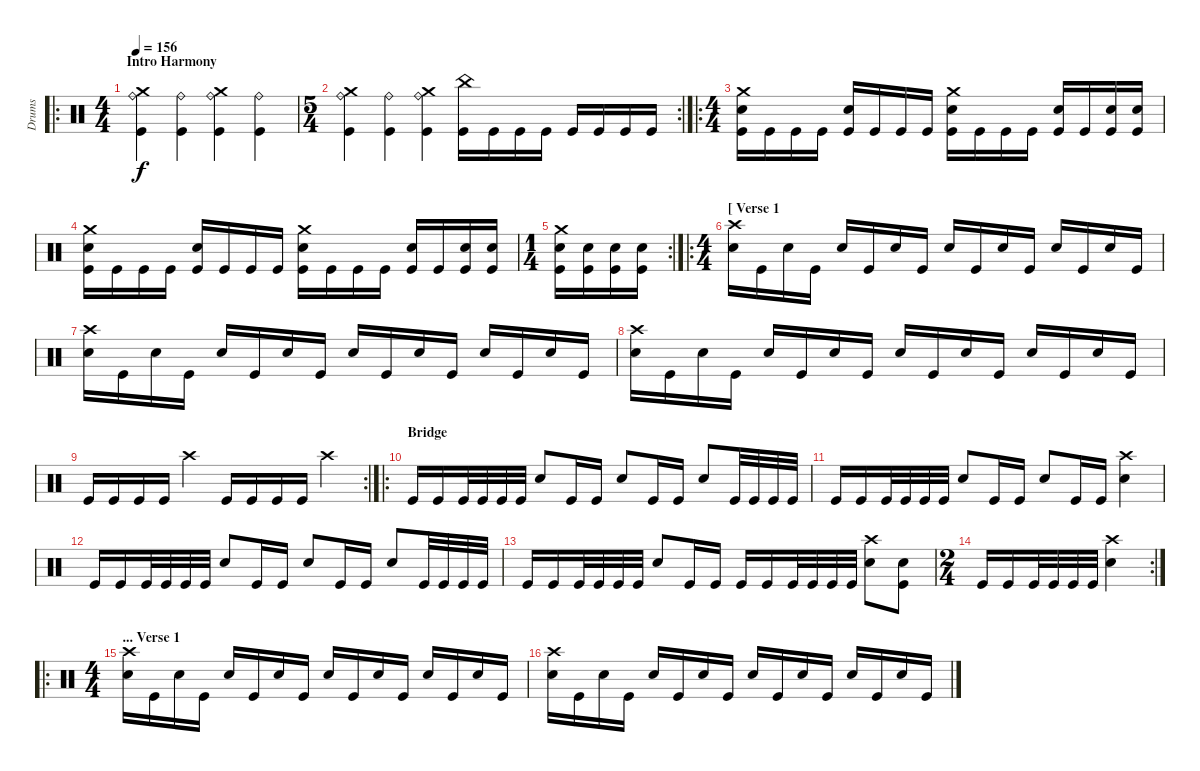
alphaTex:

\track ("Drums" "Drums") {instrument percussion}
\staff {score}
\articulation defaults
\ro
\ts (4 4)
\section ("" "Intro Harmony")
\tempo 156
\clef neutral
\ks c
("Crash medium (hit)" "Kick (hit)" "Ride (bell)").4{dy f} ("Kick (hit)" "Ride (bell)").4 ("Crash medium (hit)" "Kick (hit)" "Ride (bell)").4 ("Kick (hit)" "Ride (bell)").4 |
\rc 2
\ts (5 4)
("Crash medium (hit)" "Kick (hit)" "Ride (bell)").4 ("Kick (hit)" "Ride (bell)").4 ("Crash medium (hit)" "Kick (hit)" "Ride (bell)").4 ("China (hit)" "Kick (hit)").16 "Kick (hit)".16 "Kick (hit)".16 "Kick (hit)".16 "Kick (hit)".16 "Kick (hit)".16 "Kick (hit)".16 "Kick (hit)".16 |
\ro
\ts (4 4)
("Electric Snare (hit)" "Crash medium (hit)" "Kick (hit)").16 "Kick (hit)".16 "Kick (hit)".16 "Kick (hit)".16 ("Electric Snare (hit)" "Kick (hit)").16 "Kick (hit)".16 "Kick (hit)".16 "Kick (hit)".16 ("Electric Snare (hit)" "Crash medium (hit)" "Kick (hit)").16 "Kick (hit)".16 "Kick (hit)".16 "Kick (hit)".16 ("Electric Snare (hit)" "Kick (hit)").16 "Kick (hit)".16 ("Electric Snare (hit)" "Kick (hit)").16 ("Electric Snare (hit)" "Kick (hit)").16 |
("Electric Snare (hit)" "Crash medium (hit)" "Kick (hit)").16 "Kick (hit)".16 "Kick (hit)".16 "Kick (hit)".16 ("Electric Snare (hit)" "Kick (hit)").16 "Kick (hit)".16 "Kick (hit)".16 "Kick (hit)".16 ("Electric Snare (hit)" "Crash medium (hit)" "Kick (hit)").16 "Kick (hit)".16 "Kick (hit)".16 "Kick (hit)".16 ("Electric Snare (hit)" "Kick (hit)").16 "Kick (hit)".16 ("Electric Snare (hit)" "Kick (hit)").16 ("Electric Snare (hit)" "Kick (hit)").16 |
\rc 2
\ts (1 4)
("Electric Snare (hit)" "Crash medium (hit)" "Kick (hit)").16 ("Snare (hit) 2" "Kick (hit)").16 ("Snare (hit) 2" "Kick (hit)").16 ("Snare (hit) 2" "Kick (hit)").16 |
\ro
\ts (4 4)
\section ("" "[ Verse 1")
("Crash high (hit)" "Electric Snare (hit)").16 "Kick (hit)".16 "Electric Snare (hit)".16 "Kick (hit)".16 "Electric Snare (hit)".16 "Kick (hit)".16 "Electric Snare (hit)".16 "Kick (hit)".16 "Electric Snare (hit)".16 "Kick (hit)".16 "Electric Snare (hit)".16 "Kick (hit)".16 "Electric Snare (hit)".16 "Kick (hit)".16 "Electric Snare (hit)".16 "Kick (hit)".16 |
("Crash high (hit)" "Electric Snare (hit)").16 "Kick (hit)".16 "Electric Snare (hit)".16 "Kick (hit)".16 "Electric Snare (hit)".16 "Kick (hit)".16 "Electric Snare (hit)".16 "Kick (hit)".16 "Electric Snare (hit)".16 "Kick (hit)".16 "Electric Snare (hit)".16 "Kick (hit)".16 "Electric Snare (hit)".16 "Kick (hit)".16 "Electric Snare (hit)".16 "Kick (hit)".16 |
("Crash high (hit)" "Electric Snare (hit)").16 "Kick (hit)".16 "Electric Snare (hit)".16 "Kick (hit)".16 "Electric Snare (hit)".16 "Kick (hit)".16 "Electric Snare (hit)".16 "Kick (hit)".16 "Electric Snare (hit)".16 "Kick (hit)".16 "Electric Snare (hit)".16 "Kick (hit)".16 "Electric Snare (hit)".16 "Kick (hit)".16 "Electric Snare (hit)".16 "Kick (hit)".16 |
\rc 2 "Kick (hit)".16 "Kick (hit)".16 "Kick (hit)".16 "Kick (hit)".16 "Crash high (hit)".4 "Kick (hit)".16 "Kick (hit)".16 "Kick (hit)".16 "Kick (hit)".16 "Crash high (hit)".4
|
\ro
\section ("" "Bridge")
"Kick (hit)".16 "Kick (hit)".16 "Kick (hit)".32 "Kick (hit)".32 "Kick (hit)".32 "Kick (hit)".32 "Electric Snare (hit)".8 "Kick (hit)".16 "Kick (hit)".16 "Electric Snare (hit)".8 "Kick (hit)".16 "Kick (hit)".16 "Electric Snare (hit)".8 "Kick (hit)".32 "Kick (hit)".32 "Kick (hit)".32 "Kick (hit)".32 |
"Kick (hit)".16 "Kick (hit)".16 "Kick (hit)".32 "Kick (hit)".32 "Kick (hit)".32 "Kick (hit)".32 "Electric Snare (hit)".8 "Kick (hit)".16 "Kick (hit)".16 "Electric Snare (hit)".8 "Kick (hit)".16 "Kick (hit)".16 ("Crash high (hit)" "Electric Snare (hit)").4 |
"Kick (hit)".16 "Kick (hit)".16 "Kick (hit)".32 "Kick (hit)".32 "Kick (hit)".32 "Kick (hit)".32 "Electric Snare (hit)".8 "Kick (hit)".16 "Kick (hit)".16 "Electric Snare (hit)".8 "Kick (hit)".16 "Kick (hit)".16 "Electric Snare (hit)".8 "Kick (hit)".32 "Kick (hit)".32 "Kick (hit)".32 "Kick (hit)".32 |
"Kick (hit)".16 "Kick (hit)".16 "Kick (hit)".32 "Kick (hit)".32 "Kick (hit)".32 "Kick (hit)".32 "Electric Snare (hit)".8 "Kick (hit)".16 "Kick (hit)".16 "Kick (hit)".16 "Kick (hit)".16 "Kick (hit)".32 "Kick (hit)".32 "Kick (hit)".32 "Kick (hit)".32 ("Crash high (hit)" "Electric Snare (hit)").8 ("Electric Snare (hit)" "Kick (hit)").8 |
\rc 2
\ts (2 4)
"Kick (hit)".16 "Kick (hit)".16 "Kick (hit)".32 "Kick (hit)".32 "Kick (hit)".32 "Kick (hit)".32 ("Crash high (hit)" "Electric Snare (hit)").4 |
\ro
\ts (4 4)
\section ("" "... Verse 1")
("Crash high (hit)" "Electric Snare (hit)").16 "Kick (hit)".16 "Electric Snare (hit)".16 "Kick (hit)".16 "Electric Snare (hit)".16 "Kick (hit)".16 "Electric Snare (hit)".16 "Kick (hit)".16 "Electric Snare (hit)".16 "Kick (hit)".16 "Electric Snare (hit)".16 "Kick (hit)".16 "Electric Snare (hit)".16 "Kick (hit)".16 "Electric Snare (hit)".16 "Kick (hit)".16 |
("Crash high (hit)" "Electric Snare (hit)").16 "Kick (hit)".16 "Electric Snare (hit)".16 "Kick (hit)".16 "Electric Snare (hit)".16 "Kick (hit)".16 "Electric Snare (hit)".16 "Kick (hit)".16 "Electric Snare (hit)".16 "Kick (hit)".16 "Electric Snare (hit)".16 "Kick (hit)".16 "Electric Snare (hit)".16 "Kick (hit)".16 "Electric Snare (hit)".16 "Kick (hit)".16
